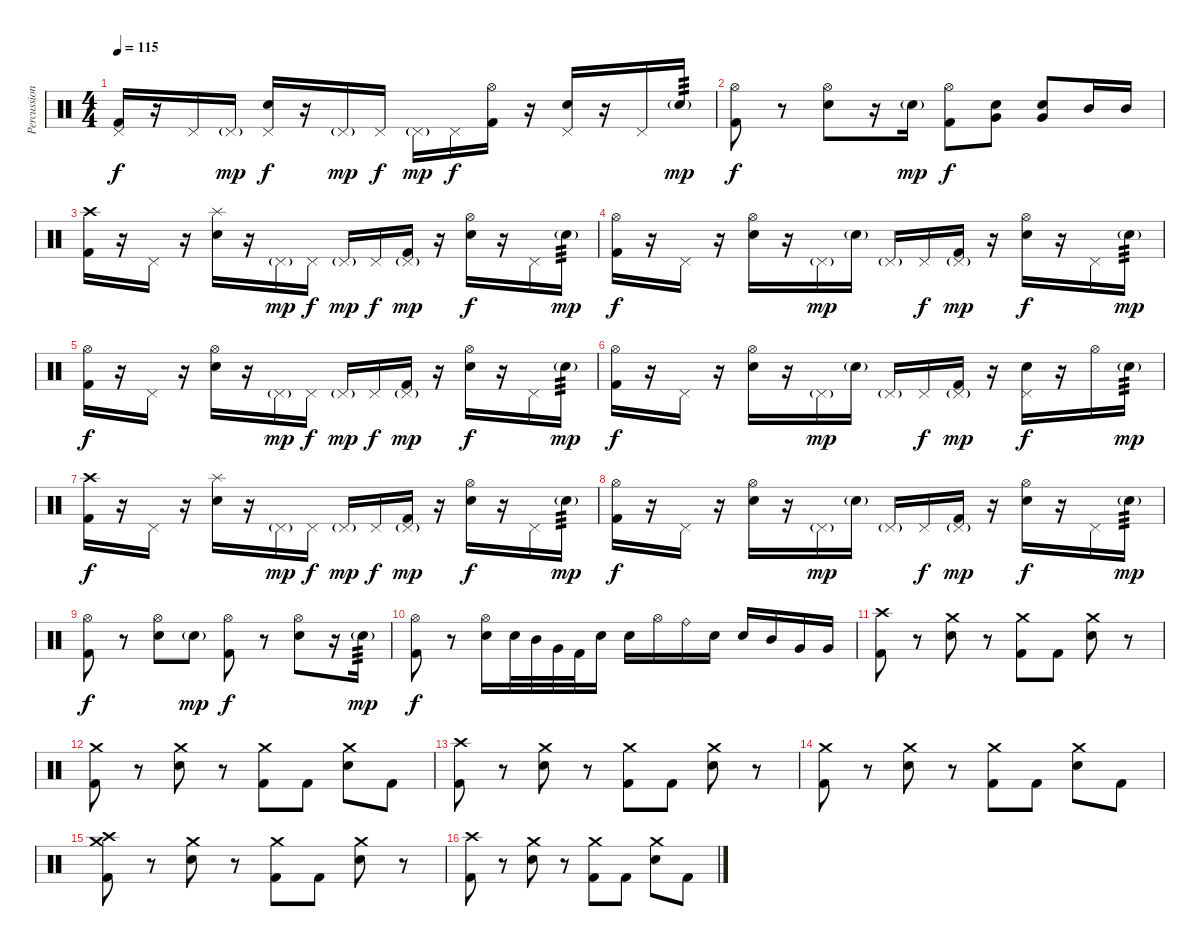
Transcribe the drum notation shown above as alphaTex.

\track ("Percussion" "Percussion") {instrument percussion}
\staff {score}
\articulation defaults
\ts (4 4)
\tempo 115
\clef neutral
\ks c
("Kick (hit) 2" "Pedal Hi-Hat (hit)").16{dy f} r.16 "Pedal Hi-Hat (hit)".16 "Pedal Hi-Hat (hit)"{g}.16{dy mp} ("Electric Snare (hit)" "Pedal Hi-Hat (hit)").16{dy f} r.16 "Pedal Hi-Hat (hit)"{g}.16{dy mp} "Pedal Hi-Hat (hit)".16{dy f} "Pedal Hi-Hat (hit)"{g}.16{dy mp} "Pedal Hi-Hat (hit)".16{dy f} ("Kick (hit) 2" "Hi-Hat (open)").16 r.16 ("Electric Snare (hit)" "Pedal Hi-Hat (hit)").16 r.16 "Pedal Hi-Hat (hit)".16 "Electric Snare (hit)"{g}.16{tp 3 dy mp} |
("Kick (hit) 2" "Hi-Hat (open)").8{dy f} r.8 ("Electric Snare (hit)" "Hi-Hat (open)").8 r.16 "Electric Snare (hit)"{g}.16{dy mp} ("Kick (hit) 2" "Hi-Hat (open)").8{dy f} ("Electric Snare (hit)" "Very Low Tom (hit)").8 ("Electric Snare (hit)" "Very Low Tom (hit)").8 "Mid Tom (hit)".16 "Mid Tom (hit)".16 |
("Kick (hit) 2" "Crash high (hit)").16 r.16 "Pedal Hi-Hat (hit)".16 r.16 ("Electric Snare (hit)" "Splash (hit)").16 r.16 "Pedal Hi-Hat (hit)"{g}.16{dy mp} "Pedal Hi-Hat (hit)".16{dy f} "Pedal Hi-Hat (hit)"{g}.16{dy mp} "Pedal Hi-Hat (hit)".16{dy f} ("Kick (hit) 2" "Pedal Hi-Hat (hit)"{g}).16{dy mp} r.16 ("Electric Snare (hit)" "Hi-Hat (open)").16{dy f} r.16 "Pedal Hi-Hat (hit)".16 "Electric Snare (hit)"{g}.16{tp 3 dy mp} |
("Kick (hit) 2" "Hi-Hat (open)").16{dy f} r.16 "Pedal Hi-Hat (hit)".16 r.16 ("Electric Snare (hit)" "Hi-Hat (open)").16 r.16 "Pedal Hi-Hat (hit)"{g}.16{dy mp} "Electric Snare (hit)"{g}.16 "Pedal Hi-Hat (hit)"{g}.16 "Pedal Hi-Hat (hit)".16{dy f} ("Kick (hit) 2" "Pedal Hi-Hat (hit)"{g}).16{dy mp} r.16 ("Electric Snare (hit)" "Hi-Hat (open)").16{dy f} r.16 "Pedal Hi-Hat (hit)".16 "Electric Snare (hit)"{g}.16{tp 3 dy mp} |
("Kick (hit) 2" "Hi-Hat (open)").16{dy f} r.16 "Pedal Hi-Hat (hit)".16 r.16 ("Electric Snare (hit)" "Hi-Hat (open)").16 r.16 "Pedal Hi-Hat (hit)"{g}.16{dy mp} "Pedal Hi-Hat (hit)".16{dy f} "Pedal Hi-Hat (hit)"{g}.16{dy mp} "Pedal Hi-Hat (hit)".16{dy f} ("Kick (hit) 2" "Pedal Hi-Hat (hit)"{g}).16{dy mp} r.16 ("Electric Snare (hit)" "Hi-Hat (open)").16{dy f} r.16 "Pedal Hi-Hat (hit)".16 "Electric Snare (hit)"{g}.16{tp 3 dy mp} |
("Kick (hit) 2" "Hi-Hat (open)").16{dy f} r.16 "Pedal Hi-Hat (hit)".16 r.16 ("Electric Snare (hit)" "Hi-Hat (open)").16 r.16 "Pedal Hi-Hat (hit)"{g}.16{dy mp} "Electric Snare (hit)"{g}.16 "Pedal Hi-Hat (hit)"{g}.16 "Pedal Hi-Hat (hit)".16{dy f} ("Kick (hit) 2" "Pedal Hi-Hat (hit)"{g}).16{dy mp} r.16 ("Electric Snare (hit)" "Pedal Hi-Hat (hit)").16{dy f} r.16 "Hi-Hat (open)".16 "Electric Snare (hit)"{g}.16{tp 3 dy mp} |
("Kick (hit) 2" "Crash high (hit)").16{dy f} r.16 "Pedal Hi-Hat (hit)".16 r.16 ("Electric Snare (hit)" "Splash (hit)").16 r.16 "Pedal Hi-Hat (hit)"{g}.16{dy mp} "Pedal Hi-Hat (hit)".16{dy f} "Pedal Hi-Hat (hit)"{g}.16{dy mp} "Pedal Hi-Hat (hit)".16{dy f} ("Kick (hit) 2" "Pedal Hi-Hat (hit)"{g}).16{dy mp} r.16 ("Electric Snare (hit)" "Hi-Hat (open)").16{dy f} r.16 "Pedal Hi-Hat (hit)".16 "Electric Snare (hit)"{g}.16{tp 3 dy mp} |
("Kick (hit) 2" "Hi-Hat (open)").16{dy f} r.16 "Pedal Hi-Hat (hit)".16 r.16 ("Electric Snare (hit)" "Hi-Hat (open)").16 r.16 "Pedal Hi-Hat (hit)"{g}.16{dy mp} "Electric Snare (hit)"{g}.16 "Pedal Hi-Hat (hit)"{g}.16 "Pedal Hi-Hat (hit)".16{dy f} ("Kick (hit) 2" "Pedal Hi-Hat (hit)"{g}).16{dy mp} r.16 ("Electric Snare (hit)" "Hi-Hat (open)").16{dy f} r.16 "Pedal Hi-Hat (hit)".16 "Electric Snare (hit)"{g}.16{tp 3 dy mp} |
("Kick (hit) 2" "Hi-Hat (open)").8{dy f} r.8 ("Electric Snare (hit)" "Hi-Hat (open)").8 "Electric Snare (hit)"{g}.8{dy mp} ("Kick (hit) 2" "Hi-Hat (open)").8{dy f} r.8 ("Electric Snare (hit)" "Hi-Hat (open)").8 r.16 "Electric Snare (hit)"{g}.16{tp 3 dy mp} |
("Kick (hit) 2" "Hi-Hat (open)").8{dy f} r.8 ("Electric Snare (hit)" "Hi-Hat (open)").16 "Electric Snare (hit)".32 "Mid Tom (hit)".32 "Very Low Tom (hit)".32 "Kick (hit) 2".32 "Electric Snare (hit)".16 "Electric Snare (hit)".16 "Hi-Hat (open)".16 "Ride (bell)".16 "Electric Snare (hit)".16 "Electric Snare (hit)".16 "Mid Tom (hit)".16 "Very Low Tom (hit)".16 "Very Low Tom (hit)".16 |
("Kick (hit) 2" "Crash high (hit)").8 r.8 ("Electric Snare (hit)" "Crash medium (hit)").8 r.8 ("Kick (hit) 2" "Crash medium (hit)").8 "Kick (hit) 2".8 ("Electric Snare (hit)" "Crash medium (hit)").8 r.8 |
("Kick (hit) 2" "Crash medium (hit)").8 r.8 ("Electric Snare (hit)" "Crash medium (hit)").8 r.8 ("Kick (hit) 2" "Crash medium (hit)").8 "Kick (hit) 2".8 ("Electric Snare (hit)" "Crash medium (hit)").8 "Kick (hit) 2".8 |
("Kick (hit) 2" "Crash high (hit)").8 r.8 ("Electric Snare (hit)" "Crash medium (hit)").8 r.8 ("Kick (hit) 2" "Crash medium (hit)").8 "Kick (hit) 2".8 ("Electric Snare (hit)" "Crash medium (hit)").8 r.8 |
("Kick (hit) 2" "Crash medium (hit)").8 r.8 ("Electric Snare (hit)" "Crash medium (hit)").8 r.8 ("Kick (hit) 2" "Crash medium (hit)").8 "Kick (hit) 2".8 ("Electric Snare (hit)" "Crash medium (hit)").8 "Kick (hit) 2".8 |
("Kick (hit) 2" "Crash medium (hit)" "Crash high (hit)").8 r.8 ("Electric Snare (hit)" "Crash medium (hit)").8 r.8 ("Kick (hit) 2" "Crash medium (hit)").8 "Kick (hit) 2".8 ("Electric Snare (hit)" "Crash medium (hit)").8 r.8 |
("Kick (hit) 2" "Crash high (hit)").8 r.8 ("Electric Snare (hit)" "Crash medium (hit)").8 r.8 ("Kick (hit) 2" "Crash medium (hit)").8 "Kick (hit) 2".8 ("Electric Snare (hit)" "Crash medium (hit)").8 "Kick (hit) 2".8
